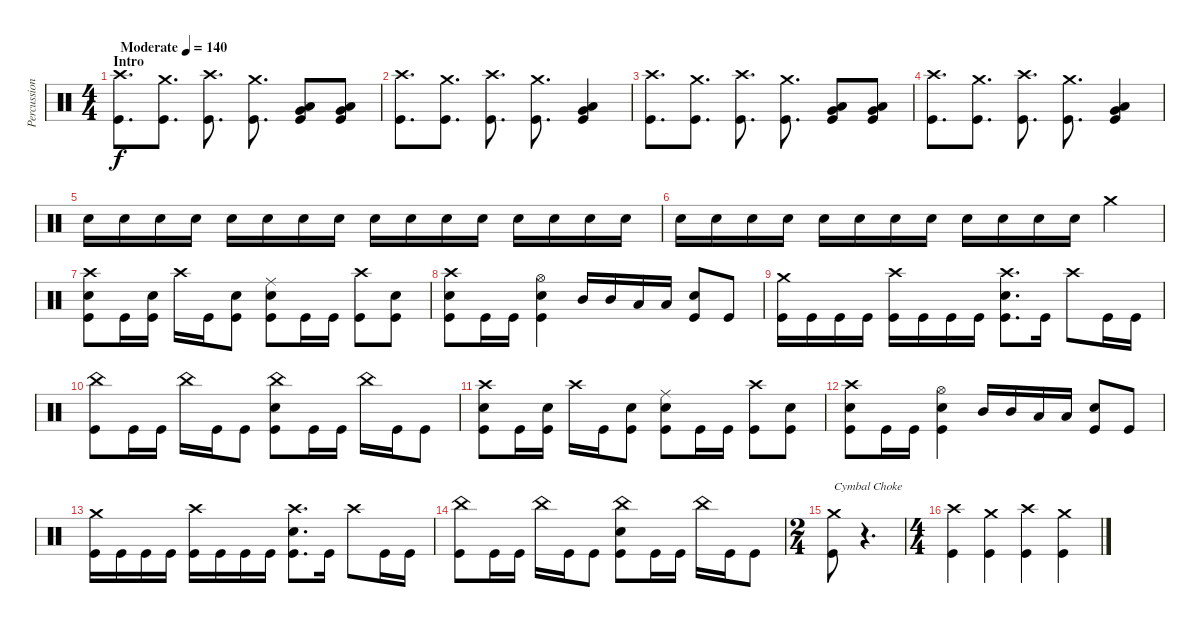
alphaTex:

\track ("Percussion" "Percussion") {instrument percussion}
\staff {score}
\articulation defaults
\ts (4 4)
\section ("" "Intro")
\tempo (140 "Moderate")
\clef neutral
\ks c
("Crash high (hit)" "Kick (hit)").8{d dy f} ("Crash medium (hit)" "Kick (hit)").8{d} ("Crash high (hit)" "Kick (hit)").8{d} ("Crash medium (hit)" "Kick (hit)").8{d} ("Very Low Tom (hit)" "Low Floor Tom (hit)" "Kick (hit)").8 ("Very Low Tom (hit)" "Low Floor Tom (hit)" "Kick (hit)").8 |
("Crash high (hit)" "Kick (hit)").8{d} ("Crash medium (hit)" "Kick (hit)").8{d} ("Crash high (hit)" "Kick (hit)").8{d} ("Crash medium (hit)" "Kick (hit)").8{d} ("Very Low Tom (hit)" "Low Floor Tom (hit)" "Kick (hit)").4 |
("Crash high (hit)" "Kick (hit)").8{d} ("Crash medium (hit)" "Kick (hit)").8{d} ("Crash high (hit)" "Kick (hit)").8{d} ("Crash medium (hit)" "Kick (hit)").8{d} ("Very Low Tom (hit)" "Low Floor Tom (hit)" "Kick (hit)").8 ("Very Low Tom (hit)" "Low Floor Tom (hit)" "Kick (hit)").8 |
("Crash high (hit)" "Kick (hit)").8{d} ("Crash medium (hit)" "Kick (hit)").8{d} ("Crash high (hit)" "Kick (hit)").8{d} ("Crash medium (hit)" "Kick (hit)").8{d} ("Very Low Tom (hit)" "Low Floor Tom (hit)" "Kick (hit)").4 |
"Electric Snare (hit)".16 "Electric Snare (hit)".16 "Electric Snare (hit)".16 "Electric Snare (hit)".16 "Electric Snare (hit)".16 "Electric Snare (hit)".16 "Electric Snare (hit)".16 "Electric Snare (hit)".16 "Electric Snare (hit)".16 "Electric Snare (hit)".16 "Electric Snare (hit)".16 "Electric Snare (hit)".16 "Electric Snare (hit)".16 "Electric Snare (hit)".16 "Electric Snare (hit)".16 "Electric Snare (hit)".16 |
"Electric Snare (hit)".16 "Electric Snare (hit)".16 "Electric Snare (hit)".16 "Electric Snare (hit)".16 "Electric Snare (hit)".16 "Electric Snare (hit)".16 "Electric Snare (hit)".16 "Electric Snare (hit)".16 "Electric Snare (hit)".16 "Electric Snare (hit)".16 "Electric Snare (hit)".16 "Electric Snare (hit)".16 "Crash medium (hit)".4 |
("Crash high (hit)" "Electric Snare (hit)" "Kick (hit)").8 "Kick (hit)".16 ("Electric Snare (hit)" "Kick (hit)").16 "Crash high (hit)".16 "Kick (hit)".16 ("Electric Snare (hit)" "Kick (hit)").8 ("Ride (middle)" "Electric Snare (hit)" "Kick (hit)").8 "Kick (hit)".16 "Kick (hit)".16 ("Crash high (hit)" "Kick (hit)").8 ("Electric Snare (hit)" "Kick (hit)").8 |
("Crash high (hit)" "Electric Snare (hit)" "Kick (hit)").8 "Kick (hit)".16 "Kick (hit)".16 ("Hi-Hat (open)" "Electric Snare (hit)" "Kick (hit)").4 "Mid Tom (hit)".16 "Mid Tom (hit)".16 "Low Tom (hit)".16 "Low Tom (hit)".16 ("Electric Snare (hit)" "Kick (hit)").8 "Kick (hit)".8 |
("Crash medium (hit)" "Kick (hit)").16 "Kick (hit)".16 "Kick (hit)".16 "Kick (hit)".16 ("Crash high (hit)" "Kick (hit)").16 "Kick (hit)".16 "Kick (hit)".16 "Kick (hit)".16 ("Crash high (hit)" "Electric Snare (hit)" "Kick (hit)").8{d} "Kick (hit)".16 "Crash high (hit)".8 "Kick (hit)".16 "Kick (hit)".16 |
("China (hit)" "Kick (hit)").8 "Kick (hit)".16 "Kick (hit)".16 "China (hit)".16 "Kick (hit)".16 "Kick (hit)".8 ("China (hit)" "Electric Snare (hit)" "Kick (hit)").8 "Kick (hit)".16 "Kick (hit)".16 "China (hit)".16 "Kick (hit)".16 "Kick (hit)".8 |
("Crash high (hit)" "Electric Snare (hit)" "Kick (hit)").8 "Kick (hit)".16 ("Electric Snare (hit)" "Kick (hit)").16 "Crash high (hit)".16 "Kick (hit)".16 ("Electric Snare (hit)" "Kick (hit)").8 ("Ride (middle)" "Electric Snare (hit)" "Kick (hit)").8 "Kick (hit)".16 "Kick (hit)".16 ("Crash high (hit)" "Kick (hit)").8 ("Electric Snare (hit)" "Kick (hit)").8 |
("Crash high (hit)" "Electric Snare (hit)" "Kick (hit)").8 "Kick (hit)".16 "Kick (hit)".16 ("Hi-Hat (open)" "Electric Snare (hit)" "Kick (hit)").4 "Mid Tom (hit)".16 "Mid Tom (hit)".16 "Low Tom (hit)".16 "Low Tom (hit)".16 ("Electric Snare (hit)" "Kick (hit)").8 "Kick (hit)".8 |
("Crash medium (hit)" "Kick (hit)").16 "Kick (hit)".16 "Kick (hit)".16 "Kick (hit)".16 ("Crash high (hit)" "Kick (hit)").16 "Kick (hit)".16 "Kick (hit)".16 "Kick (hit)".16 ("Crash high (hit)" "Electric Snare (hit)" "Kick (hit)").8{d} "Kick (hit)".16 "Crash high (hit)".8 "Kick (hit)".16 "Kick (hit)".16 |
("China (hit)" "Kick (hit)").8 "Kick (hit)".16 "Kick (hit)".16 "China (hit)".16 "Kick (hit)".16 "Kick (hit)".8 ("China (hit)" "Electric Snare (hit)" "Kick (hit)").8 "Kick (hit)".16 "Kick (hit)".16 "China (hit)".16 "Kick (hit)".16 "Kick (hit)".8 |
\ts (2 4)
("Crash medium (hit)" "Kick (hit)").8{txt "Cymbal Choke"} r.4{d volume 0} |
\ts (4 4)
("Crash high (hit)" "Kick (hit)").4{volume 16} ("Crash medium (hit)" "Kick (hit)").4 ("Crash high (hit)" "Kick (hit)").4 ("Crash medium (hit)" "Kick (hit)").4
